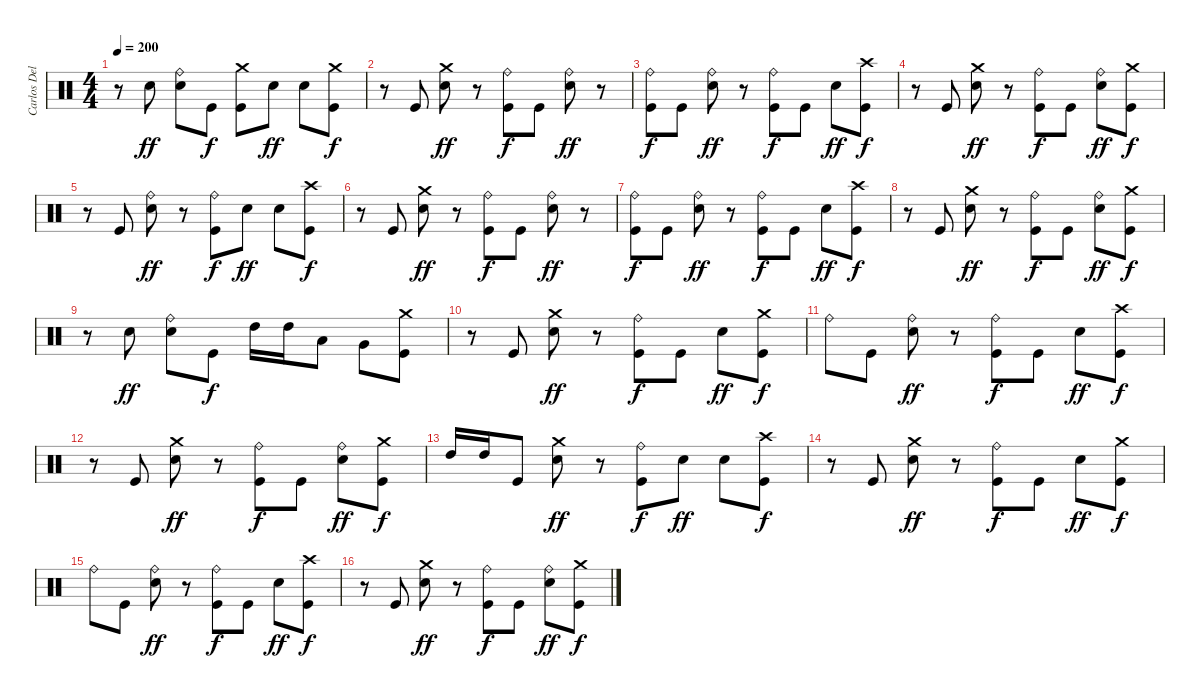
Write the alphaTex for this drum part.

\track ("Carlos Delgado" "Carlos Del") {instrument percussion}
\staff {score}
\articulation defaults
\ts (4 4)
\tempo 200
\clef neutral
\ks c
r.8{dy f} "Electric Snare (hit)".8{dy ff} ("Electric Snare (hit)" "Ride (bell)").8 "Kick (hit)".8{dy f} ("Kick (hit)" "Crash medium (hit)").8 "Electric Snare (hit)".8{dy ff} "Electric Snare (hit)".8 ("Crash medium (hit)" "Kick (hit)").8{dy f} |
r.8 "Kick (hit)".8 ("Crash medium (hit)" "Electric Snare (hit)").8{dy ff} r.8 ("Ride (bell)" "Kick (hit)").8{dy f} "Kick (hit)".8 ("Electric Snare (hit)" "Ride (bell)").8{dy ff} r.8 |
("Ride (bell)" "Kick (hit)").8{dy f} "Kick (hit)".8 ("Ride (bell)" "Electric Snare (hit)").8{dy ff} r.8 ("Ride (bell)" "Kick (hit)").8{dy f} "Kick (hit)".8 "Electric Snare (hit)".8{dy ff} ("Crash high (hit)" "Kick (hit)").8{dy f} |
r.8 "Kick (hit)".8 ("Crash medium (hit)" "Electric Snare (hit)").8{dy ff} r.8 ("Ride (bell)" "Kick (hit)").8{dy f} "Kick (hit)".8 ("Electric Snare (hit)" "Ride (bell)").8{dy ff} ("Kick (hit)" "Crash medium (hit)").8{dy f} |
r.8 "Kick (hit)".8 ("Ride (bell)" "Electric Snare (hit)").8{dy ff} r.8 ("Kick (hit)" "Ride (bell)").8{dy f} "Electric Snare (hit)".8{dy ff} "Electric Snare (hit)".8 ("Crash high (hit)" "Kick (hit)").8{dy f} |
r.8 "Kick (hit)".8 ("Crash medium (hit)" "Electric Snare (hit)").8{dy ff} r.8 ("Ride (bell)" "Kick (hit)").8{dy f} "Kick (hit)".8 ("Electric Snare (hit)" "Ride (bell)").8{dy ff} r.8 |
("Kick (hit)" "Ride (bell)").8{dy f} "Kick (hit)".8 ("Ride (bell)" "Electric Snare (hit)").8{dy ff} r.8 ("Kick (hit)" "Ride (bell)").8{dy f} "Kick (hit)".8 "Electric Snare (hit)".8{dy ff} ("Crash high (hit)" "Kick (hit)").8{dy f} |
r.8 "Kick (hit)".8 ("Crash medium (hit)" "Electric Snare (hit)").8{dy ff} r.8 ("Kick (hit)" "Ride (bell)").8{dy f} "Kick (hit)".8 ("Electric Snare (hit)" "Ride (bell)").8{dy ff} ("Crash medium (hit)" "Kick (hit)").8{dy f} |
r.8 "Electric Snare (hit)".8{dy ff} ("Ride (bell)" "Electric Snare (hit)").8 "Kick (hit)".8{dy f} "High Tom (hit)".16 "High Tom (hit)".16 "Low Tom (hit)".8 "Very Low Tom (hit)".8 ("Crash medium (hit)" "Kick (hit)").8 |
r.8 "Kick (hit)".8 ("Crash medium (hit)" "Electric Snare (hit)").8{dy ff} r.8 ("Ride (bell)" "Kick (hit)").8{dy f} "Kick (hit)".8 "Electric Snare (hit)".8{dy ff} ("Kick (hit)" "Crash medium (hit)").8{dy f} |
"Ride (bell)".8 "Kick (hit)".8 ("Ride (bell)" "Electric Snare (hit)").8{dy ff} r.8 ("Kick (hit)" "Ride (bell)").8{dy f} "Kick (hit)".8 "Electric Snare (hit)".8{dy ff} ("Crash high (hit)" "Kick (hit)").8{dy f} |
r.8 "Kick (hit)".8 ("Crash medium (hit)" "Electric Snare (hit)").8{dy ff} r.8 ("Ride (bell)" "Kick (hit)").8{dy f} "Kick (hit)".8 ("Electric Snare (hit)" "Ride (bell)").8{dy ff} ("Kick (hit)" "Crash medium (hit)").8{dy f} |
"High Tom (hit)".16 "High Tom (hit)".16 "Kick (hit)".8 ("Crash medium (hit)" "Electric Snare (hit)").8{dy ff} r.8 ("Kick (hit)" "Ride (bell)").8{dy f} "Electric Snare (hit)".8{dy ff} "Electric Snare (hit)".8 ("Crash high (hit)" "Kick (hit)").8{dy f} |
r.8 "Kick (hit)".8 ("Crash medium (hit)" "Electric Snare (hit)").8{dy ff} r.8 ("Ride (bell)" "Kick (hit)").8{dy f} "Kick (hit)".8 "Electric Snare (hit)".8{dy ff} ("Kick (hit)" "Crash medium (hit)").8{dy f} |
"Ride (bell)".8 "Kick (hit)".8 ("Ride (bell)" "Electric Snare (hit)").8{dy ff} r.8 ("Kick (hit)" "Ride (bell)").8{dy f} "Kick (hit)".8 "Electric Snare (hit)".8{dy ff} ("Kick (hit)" "Crash high (hit)").8{dy f} |
r.8 "Kick (hit)".8 ("Crash medium (hit)" "Electric Snare (hit)").8{dy ff} r.8 ("Ride (bell)" "Kick (hit)").8{dy f} "Kick (hit)".8 ("Electric Snare (hit)" "Ride (bell)").8{dy ff} ("Kick (hit)" "Crash medium (hit)").8{dy f}
